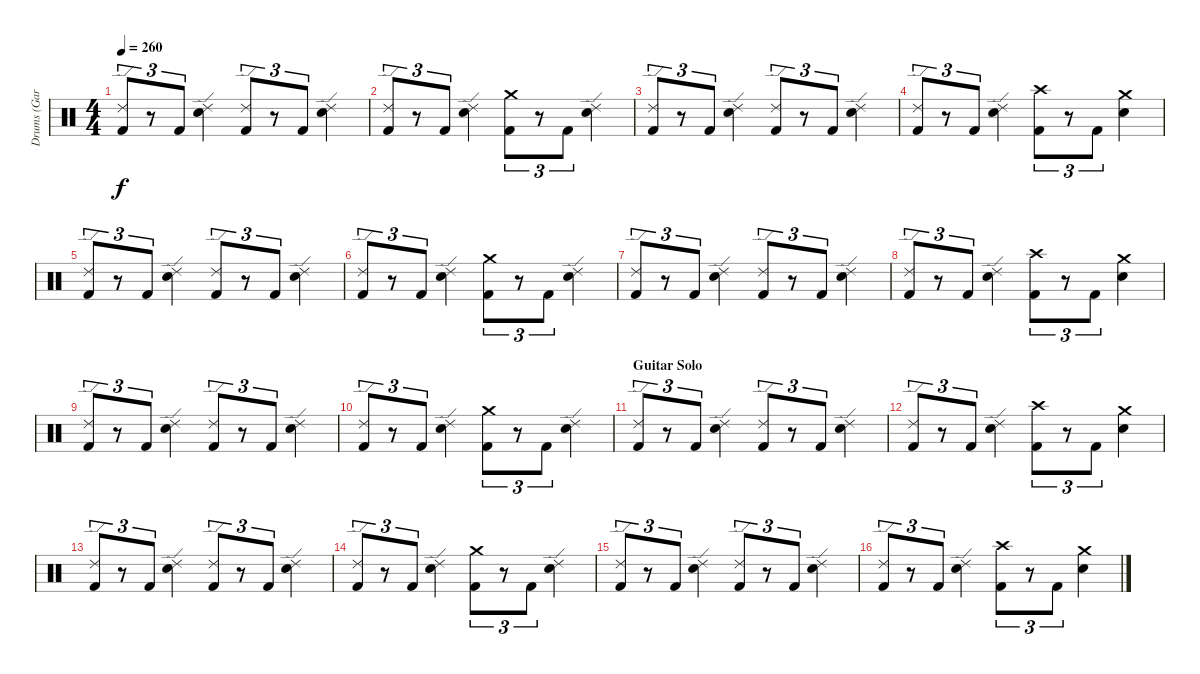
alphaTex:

\track ("Drums (Gar Samuelson)" "Drums (Gar") {instrument percussion}
\staff {score}
\articulation defaults
\ts (4 4)
\tempo 260
\clef neutral
\ks c
("Ride (edge) 2" "Kick (hit) 2").8{tu (3 2) dy f} r.8{tu (3 2)} "Kick (hit) 2".8{tu (3 2)} ("Ride (edge) 2" "Snare (hit) 2").4 ("Ride (edge) 2" "Kick (hit) 2").8{tu (3 2)} r.8{tu (3 2)} "Kick (hit) 2".8{tu (3 2)} ("Ride (edge) 2" "Snare (hit) 2").4 |
("Ride (edge) 2" "Kick (hit) 2").8{tu (3 2)} r.8{tu (3 2)} "Kick (hit) 2".8{tu (3 2)} ("Ride (edge) 2" "Snare (hit) 2").4 ("Crash medium (hit)" "Kick (hit) 2").8{tu (3 2)} r.8{tu (3 2)} "Kick (hit) 2".8{tu (3 2)} ("Ride (edge) 2" "Snare (hit) 2").4 |
("Ride (edge) 2" "Kick (hit) 2").8{tu (3 2)} r.8{tu (3 2)} "Kick (hit) 2".8{tu (3 2)} ("Ride (edge) 2" "Snare (hit) 2").4 ("Ride (edge) 2" "Kick (hit) 2").8{tu (3 2)} r.8{tu (3 2)} "Kick (hit) 2".8{tu (3 2)} ("Ride (edge) 2" "Snare (hit) 2").4 |
("Ride (edge) 2" "Kick (hit) 2").8{tu (3 2)} r.8{tu (3 2)} "Kick (hit) 2".8{tu (3 2)} ("Ride (edge) 2" "Snare (hit) 2").4 ("Crash high (hit)" "Kick (hit) 2").8{tu (3 2)} r.8{tu (3 2)} "Kick (hit) 2".8{tu (3 2)} ("Crash medium (hit)" "Snare (hit) 2").4 |
("Ride (edge) 2" "Kick (hit) 2").8{tu (3 2)} r.8{tu (3 2)} "Kick (hit) 2".8{tu (3 2)} ("Ride (edge) 2" "Snare (hit) 2").4 ("Ride (edge) 2" "Kick (hit) 2").8{tu (3 2)} r.8{tu (3 2)} "Kick (hit) 2".8{tu (3 2)} ("Ride (edge) 2" "Snare (hit) 2").4 |
("Ride (edge) 2" "Kick (hit) 2").8{tu (3 2)} r.8{tu (3 2)} "Kick (hit) 2".8{tu (3 2)} ("Ride (edge) 2" "Snare (hit) 2").4 ("Crash medium (hit)" "Kick (hit) 2").8{tu (3 2)} r.8{tu (3 2)} "Kick (hit) 2".8{tu (3 2)} ("Ride (edge) 2" "Snare (hit) 2").4 |
("Ride (edge) 2" "Kick (hit) 2").8{tu (3 2)} r.8{tu (3 2)} "Kick (hit) 2".8{tu (3 2)} ("Ride (edge) 2" "Snare (hit) 2").4 ("Ride (edge) 2" "Kick (hit) 2").8{tu (3 2)} r.8{tu (3 2)} "Kick (hit) 2".8{tu (3 2)} ("Ride (edge) 2" "Snare (hit) 2").4 |
("Ride (edge) 2" "Kick (hit) 2").8{tu (3 2)} r.8{tu (3 2)} "Kick (hit) 2".8{tu (3 2)} ("Ride (edge) 2" "Snare (hit) 2").4 ("Crash high (hit)" "Kick (hit) 2").8{tu (3 2)} r.8{tu (3 2)} "Kick (hit) 2".8{tu (3 2)} ("Crash medium (hit)" "Snare (hit) 2").4 |
("Ride (edge) 2" "Kick (hit) 2").8{tu (3 2)} r.8{tu (3 2)} "Kick (hit) 2".8{tu (3 2)} ("Ride (edge) 2" "Snare (hit) 2").4 ("Ride (edge) 2" "Kick (hit) 2").8{tu (3 2)} r.8{tu (3 2)} "Kick (hit) 2".8{tu (3 2)} ("Ride (edge) 2" "Snare (hit) 2").4 |
("Ride (edge) 2" "Kick (hit) 2").8{tu (3 2)} r.8{tu (3 2)} "Kick (hit) 2".8{tu (3 2)} ("Ride (edge) 2" "Snare (hit) 2").4 ("Crash medium (hit)" "Kick (hit) 2").8{tu (3 2)} r.8{tu (3 2)} "Kick (hit) 2".8{tu (3 2)} ("Ride (edge) 2" "Snare (hit) 2").4 |
\section ("" "Guitar Solo")
("Ride (edge) 2" "Kick (hit) 2").8{tu (3 2)} r.8{tu (3 2)} "Kick (hit) 2".8{tu (3 2)} ("Ride (edge) 2" "Snare (hit) 2").4 ("Ride (edge) 2" "Kick (hit) 2").8{tu (3 2)} r.8{tu (3 2)} "Kick (hit) 2".8{tu (3 2)} ("Ride (edge) 2" "Snare (hit) 2").4 |
("Ride (edge) 2" "Kick (hit) 2").8{tu (3 2)} r.8{tu (3 2)} "Kick (hit) 2".8{tu (3 2)} ("Ride (edge) 2" "Snare (hit) 2").4 ("Crash high (hit)" "Kick (hit) 2").8{tu (3 2)} r.8{tu (3 2)} "Kick (hit) 2".8{tu (3 2)} ("Crash medium (hit)" "Snare (hit) 2").4 |
("Ride (edge) 2" "Kick (hit) 2").8{tu (3 2)} r.8{tu (3 2)} "Kick (hit) 2".8{tu (3 2)} ("Ride (edge) 2" "Snare (hit) 2").4 ("Ride (edge) 2" "Kick (hit) 2").8{tu (3 2)} r.8{tu (3 2)} "Kick (hit) 2".8{tu (3 2)} ("Ride (edge) 2" "Snare (hit) 2").4 |
("Ride (edge) 2" "Kick (hit) 2").8{tu (3 2)} r.8{tu (3 2)} "Kick (hit) 2".8{tu (3 2)} ("Ride (edge) 2" "Snare (hit) 2").4 ("Crash medium (hit)" "Kick (hit) 2").8{tu (3 2)} r.8{tu (3 2)} "Kick (hit) 2".8{tu (3 2)} ("Ride (edge) 2" "Snare (hit) 2").4 |
("Ride (edge) 2" "Kick (hit) 2").8{tu (3 2)} r.8{tu (3 2)} "Kick (hit) 2".8{tu (3 2)} ("Ride (edge) 2" "Snare (hit) 2").4 ("Ride (edge) 2" "Kick (hit) 2").8{tu (3 2)} r.8{tu (3 2)} "Kick (hit) 2".8{tu (3 2)} ("Ride (edge) 2" "Snare (hit) 2").4 |
("Ride (edge) 2" "Kick (hit) 2").8{tu (3 2)} r.8{tu (3 2)} "Kick (hit) 2".8{tu (3 2)} ("Ride (edge) 2" "Snare (hit) 2").4 ("Crash high (hit)" "Kick (hit) 2").8{tu (3 2)} r.8{tu (3 2)} "Kick (hit) 2".8{tu (3 2)} ("Crash medium (hit)" "Snare (hit) 2").4
